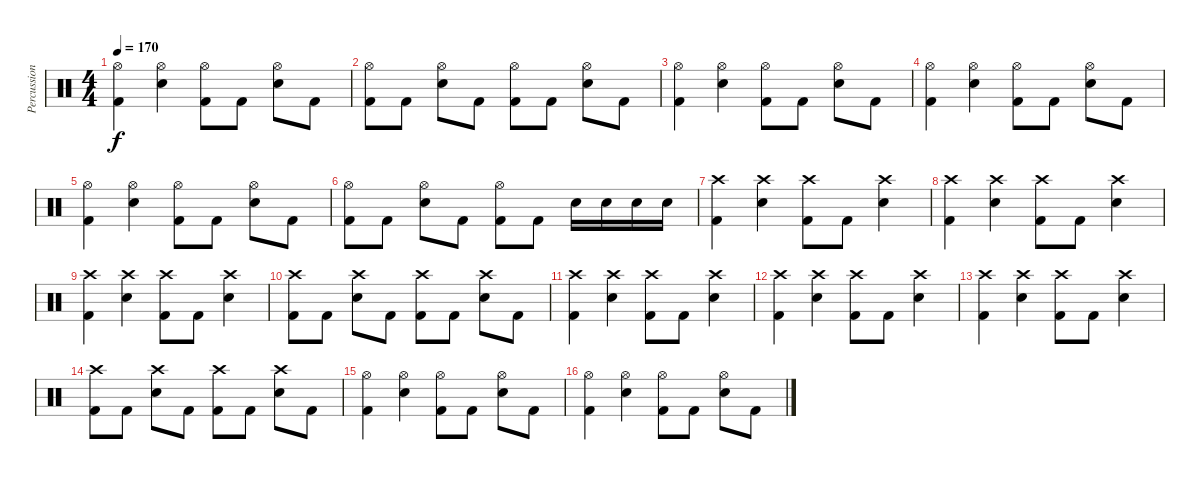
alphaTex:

\track ("Percussion" "Percussion") {instrument percussion}
\staff {score}
\articulation defaults
\ts (4 4)
\tempo 170
\clef neutral
\ks c
("Hi-Hat (open)" "Kick (hit) 2").4{dy f} ("Hi-Hat (open)" "Electric Snare (hit)").4 ("Hi-Hat (open)" "Kick (hit) 2").8 "Kick (hit) 2".8 ("Hi-Hat (open)" "Electric Snare (hit)").8 "Kick (hit) 2".8 |
("Hi-Hat (open)" "Kick (hit) 2").8 "Kick (hit) 2".8 ("Hi-Hat (open)" "Electric Snare (hit)").8 "Kick (hit) 2".8 ("Hi-Hat (open)" "Kick (hit) 2").8 "Kick (hit) 2".8 ("Hi-Hat (open)" "Electric Snare (hit)").8 "Kick (hit) 2".8 |
("Hi-Hat (open)" "Kick (hit) 2").4 ("Hi-Hat (open)" "Electric Snare (hit)").4 ("Hi-Hat (open)" "Kick (hit) 2").8 "Kick (hit) 2".8 ("Hi-Hat (open)" "Electric Snare (hit)").8 "Kick (hit) 2".8 |
("Hi-Hat (open)" "Kick (hit) 2").4 ("Hi-Hat (open)" "Electric Snare (hit)").4 ("Hi-Hat (open)" "Kick (hit) 2").8 "Kick (hit) 2".8 ("Hi-Hat (open)" "Electric Snare (hit)").8 "Kick (hit) 2".8 |
("Hi-Hat (open)" "Kick (hit) 2").4 ("Hi-Hat (open)" "Electric Snare (hit)").4 ("Hi-Hat (open)" "Kick (hit) 2").8 "Kick (hit) 2".8 ("Hi-Hat (open)" "Electric Snare (hit)").8 "Kick (hit) 2".8 |
("Hi-Hat (open)" "Kick (hit) 2").8 "Kick (hit) 2".8 ("Hi-Hat (open)" "Electric Snare (hit)").8 "Kick (hit) 2".8 ("Hi-Hat (open)" "Kick (hit) 2").8 "Kick (hit) 2".8 "Snare (hit) 2".16 "Snare (hit) 2".16 "Snare (hit) 2".16 "Snare (hit) 2".16 |
("Crash high (hit)" "Kick (hit) 2").4 ("Crash high (hit)" "Electric Snare (hit)").4 ("Crash high (hit)" "Kick (hit) 2").8 "Kick (hit) 2".8 ("Crash high (hit)" "Electric Snare (hit)").4 |
("Crash high (hit)" "Kick (hit) 2").4 ("Crash high (hit)" "Electric Snare (hit)").4 ("Crash high (hit)" "Kick (hit) 2").8 "Kick (hit) 2".8 ("Crash high (hit)" "Electric Snare (hit)").4 |
("Crash high (hit)" "Kick (hit) 2").4 ("Crash high (hit)" "Electric Snare (hit)").4 ("Crash high (hit)" "Kick (hit) 2").8 "Kick (hit) 2".8 ("Crash high (hit)" "Electric Snare (hit)").4 |
("Crash high (hit)" "Kick (hit) 2").8 "Kick (hit) 2".8 ("Crash high (hit)" "Electric Snare (hit)").8 "Kick (hit) 2".8 ("Crash high (hit)" "Kick (hit) 2").8 "Kick (hit) 2".8 ("Crash high (hit)" "Electric Snare (hit)").8 "Kick (hit) 2".8 |
("Crash high (hit)" "Kick (hit) 2").4 ("Crash high (hit)" "Electric Snare (hit)").4 ("Crash high (hit)" "Kick (hit) 2").8 "Kick (hit) 2".8 ("Crash high (hit)" "Electric Snare (hit)").4 |
("Crash high (hit)" "Kick (hit) 2").4 ("Crash high (hit)" "Electric Snare (hit)").4 ("Crash high (hit)" "Kick (hit) 2").8 "Kick (hit) 2".8 ("Crash high (hit)" "Electric Snare (hit)").4 |
("Crash high (hit)" "Kick (hit) 2").4 ("Crash high (hit)" "Electric Snare (hit)").4 ("Crash high (hit)" "Kick (hit) 2").8 "Kick (hit) 2".8 ("Crash high (hit)" "Electric Snare (hit)").4 |
("Crash high (hit)" "Kick (hit) 2").8 "Kick (hit) 2".8 ("Crash high (hit)" "Electric Snare (hit)").8 "Kick (hit) 2".8 ("Crash high (hit)" "Kick (hit) 2").8 "Kick (hit) 2".8 ("Crash high (hit)" "Electric Snare (hit)").8 "Kick (hit) 2".8 |
("Hi-Hat (open)" "Kick (hit) 2").4 ("Hi-Hat (open)" "Electric Snare (hit)").4 ("Hi-Hat (open)" "Kick (hit) 2").8 "Kick (hit) 2".8 ("Hi-Hat (open)" "Electric Snare (hit)").8 "Kick (hit) 2".8 |
("Hi-Hat (open)" "Kick (hit) 2").4 ("Hi-Hat (open)" "Electric Snare (hit)").4 ("Hi-Hat (open)" "Kick (hit) 2").8 "Kick (hit) 2".8 ("Hi-Hat (open)" "Electric Snare (hit)").8 "Kick (hit) 2".8
